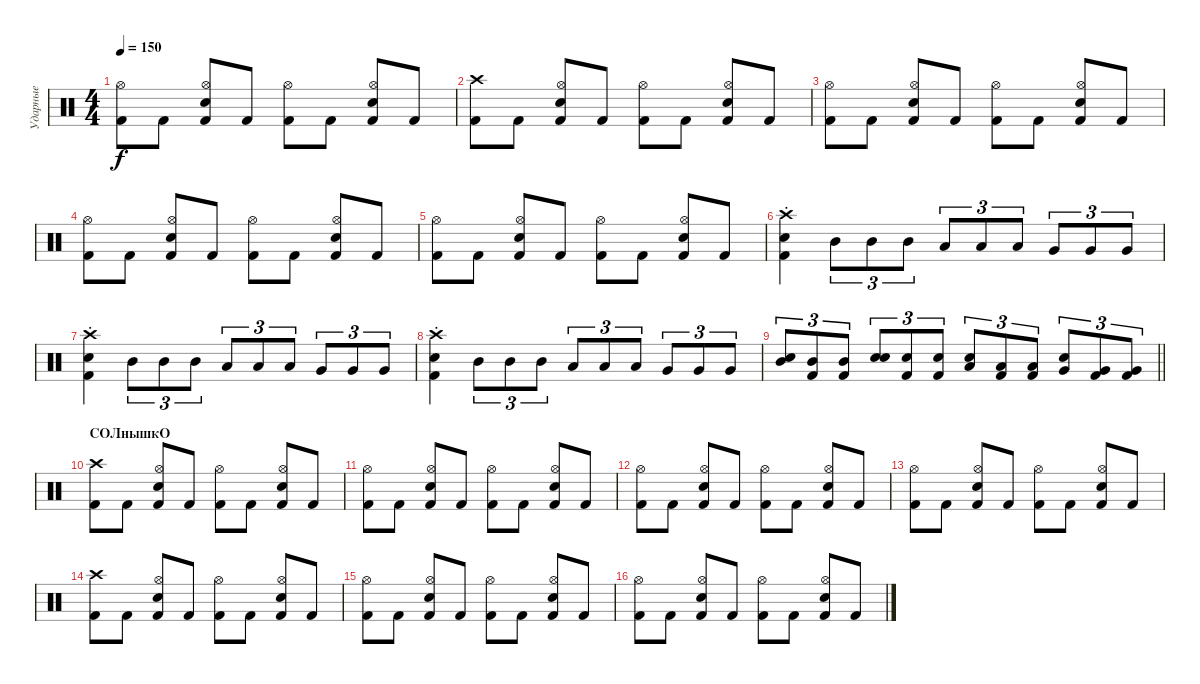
\track ("Ударные" "Ударные") {instrument percussion}
\staff {score}
\articulation defaults
\ts (4 4)
\tempo 150
\clef neutral
\ks c
("Kick (hit) 2" "Hi-Hat (open)").8{dy f} "Kick (hit) 2".8 ("Snare (hit) 2" "Kick (hit) 2" "Hi-Hat (open)").8 "Kick (hit) 2".8 ("Kick (hit) 2" "Hi-Hat (open)").8 "Kick (hit) 2".8 ("Snare (hit) 2" "Kick (hit) 2" "Hi-Hat (open)").8 "Kick (hit) 2".8 |
("Kick (hit) 2" "Crash high (hit)").8 "Kick (hit) 2".8 ("Snare (hit) 2" "Kick (hit) 2" "Hi-Hat (open)").8 "Kick (hit) 2".8 ("Kick (hit) 2" "Hi-Hat (open)").8 "Kick (hit) 2".8 ("Snare (hit) 2" "Kick (hit) 2" "Hi-Hat (open)").8 "Kick (hit) 2".8 |
("Kick (hit) 2" "Hi-Hat (open)").8 "Kick (hit) 2".8 ("Snare (hit) 2" "Kick (hit) 2" "Hi-Hat (open)").8 "Kick (hit) 2".8 ("Kick (hit) 2" "Hi-Hat (open)").8 "Kick (hit) 2".8 ("Snare (hit) 2" "Kick (hit) 2" "Hi-Hat (open)").8 "Kick (hit) 2".8 |
("Kick (hit) 2" "Hi-Hat (open)").8 "Kick (hit) 2".8 ("Snare (hit) 2" "Kick (hit) 2" "Hi-Hat (open)").8 "Kick (hit) 2".8 ("Kick (hit) 2" "Hi-Hat (open)").8 "Kick (hit) 2".8 ("Snare (hit) 2" "Kick (hit) 2" "Hi-Hat (open)").8 "Kick (hit) 2".8 |
("Kick (hit) 2" "Hi-Hat (open)").8 "Kick (hit) 2".8 ("Snare (hit) 2" "Kick (hit) 2" "Hi-Hat (open)").8 "Kick (hit) 2".8 ("Kick (hit) 2" "Hi-Hat (open)").8 "Kick (hit) 2".8 ("Snare (hit) 2" "Kick (hit) 2" "Hi-Hat (open)").8 "Kick (hit) 2".8 |
("Kick (hit) 2"{st} "Snare (hit) 2"{st} "Crash high (hit)"{st}).4 "Mid Tom (hit)".8{tu (3 2)} "Mid Tom (hit)".8{tu (3 2)} "Mid Tom (hit)".8{tu (3 2)} "Low Tom (hit)".8{tu (3 2)} "Low Tom (hit)".8{tu (3 2)} "Low Tom (hit)".8{tu (3 2)} "Very Low Tom (hit)".8{tu (3 2)} "Very Low Tom (hit)".8{tu (3 2)} "Very Low Tom (hit)".8{tu (3 2)} |
("Kick (hit) 2"{st} "Snare (hit) 2"{st} "Crash high (hit)"{st}).4 "Mid Tom (hit)".8{tu (3 2)} "Mid Tom (hit)".8{tu (3 2)} "Mid Tom (hit)".8{tu (3 2)} "Low Tom (hit)".8{tu (3 2)} "Low Tom (hit)".8{tu (3 2)} "Low Tom (hit)".8{tu (3 2)} "Very Low Tom (hit)".8{tu (3 2)} "Very Low Tom (hit)".8{tu (3 2)} "Very Low Tom (hit)".8{tu (3 2)} |
("Kick (hit) 2"{st} "Snare (hit) 2"{st} "Crash high (hit)"{st}).4 "Mid Tom (hit)".8{tu (3 2)} "Mid Tom (hit)".8{tu (3 2)} "Mid Tom (hit)".8{tu (3 2)} "Low Tom (hit)".8{tu (3 2)} "Low Tom (hit)".8{tu (3 2)} "Low Tom (hit)".8{tu (3 2)} "Very Low Tom (hit)".8{tu (3 2)} "Very Low Tom (hit)".8{tu (3 2)} "Very Low Tom (hit)".8{tu (3 2)} |
\barLineRight lightlight
("Mid Tom (hit)" "Snare (hit) 2").8{tu (3 2)} ("Mid Tom (hit)" "Kick (hit) 2").8{tu (3 2)} ("Mid Tom (hit)" "Kick (hit) 2").8{tu (3 2)} ("Electric Snare (hit)" "Snare (hit) 2").8{tu (3 2)} ("Electric Snare (hit)" "Kick (hit) 2").8{tu (3 2)} ("Electric Snare (hit)" "Kick (hit) 2").8{tu (3 2)} ("Low Tom (hit)" "Snare (hit) 2").8{tu (3 2)} ("Low Tom (hit)" "Kick (hit) 2").8{tu (3 2)} ("Low Tom (hit)" "Kick (hit) 2").8{tu (3 2)} ("Very Low Tom (hit)" "Snare (hit) 2").8{tu (3 2)} ("Very Low Tom (hit)" "Kick (hit) 2").8{tu (3 2)} ("Very Low Tom (hit)" "Kick (hit) 2").8{tu (3 2)} |
\section ("" "СОЛнышкО")
("Kick (hit) 2" "Crash high (hit)").8 "Kick (hit) 2".8 ("Snare (hit) 2" "Kick (hit) 2" "Hi-Hat (open)").8 "Kick (hit) 2".8 ("Kick (hit) 2" "Hi-Hat (open)").8 "Kick (hit) 2".8 ("Snare (hit) 2" "Kick (hit) 2" "Hi-Hat (open)").8 "Kick (hit) 2".8 |
("Kick (hit) 2" "Hi-Hat (open)").8 "Kick (hit) 2".8 ("Snare (hit) 2" "Kick (hit) 2" "Hi-Hat (open)").8 "Kick (hit) 2".8 ("Kick (hit) 2" "Hi-Hat (open)").8 "Kick (hit) 2".8 ("Snare (hit) 2" "Kick (hit) 2" "Hi-Hat (open)").8 "Kick (hit) 2".8 |
("Kick (hit) 2" "Hi-Hat (open)").8 "Kick (hit) 2".8 ("Snare (hit) 2" "Kick (hit) 2" "Hi-Hat (open)").8 "Kick (hit) 2".8 ("Kick (hit) 2" "Hi-Hat (open)").8 "Kick (hit) 2".8 ("Snare (hit) 2" "Kick (hit) 2" "Hi-Hat (open)").8 "Kick (hit) 2".8 |
("Kick (hit) 2" "Hi-Hat (open)").8 "Kick (hit) 2".8 ("Snare (hit) 2" "Kick (hit) 2" "Hi-Hat (open)").8 "Kick (hit) 2".8 ("Kick (hit) 2" "Hi-Hat (open)").8 "Kick (hit) 2".8 ("Snare (hit) 2" "Kick (hit) 2" "Hi-Hat (open)").8 "Kick (hit) 2".8 |
("Kick (hit) 2" "Crash high (hit)").8 "Kick (hit) 2".8 ("Snare (hit) 2" "Kick (hit) 2" "Hi-Hat (open)").8 "Kick (hit) 2".8 ("Kick (hit) 2" "Hi-Hat (open)").8 "Kick (hit) 2".8 ("Snare (hit) 2" "Kick (hit) 2" "Hi-Hat (open)").8 "Kick (hit) 2".8 |
("Kick (hit) 2" "Hi-Hat (open)").8 "Kick (hit) 2".8 ("Snare (hit) 2" "Kick (hit) 2" "Hi-Hat (open)").8 "Kick (hit) 2".8 ("Kick (hit) 2" "Hi-Hat (open)").8 "Kick (hit) 2".8 ("Snare (hit) 2" "Kick (hit) 2" "Hi-Hat (open)").8 "Kick (hit) 2".8 |
("Kick (hit) 2" "Hi-Hat (open)").8 "Kick (hit) 2".8 ("Snare (hit) 2" "Kick (hit) 2" "Hi-Hat (open)").8 "Kick (hit) 2".8 ("Kick (hit) 2" "Hi-Hat (open)").8 "Kick (hit) 2".8 ("Snare (hit) 2" "Kick (hit) 2" "Hi-Hat (open)").8 "Kick (hit) 2".8
